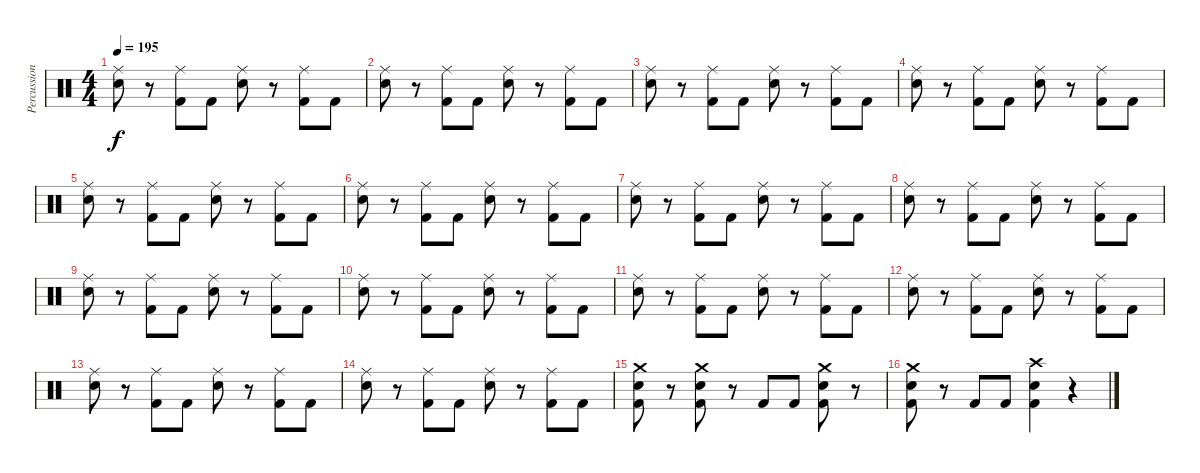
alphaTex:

\track ("Percussion" "Percussion") {instrument percussion}
\staff {score}
\articulation defaults
\ts (4 4)
\tempo 195
\clef neutral
\ks c
("Ride (middle)" "Electric Snare (hit)").8{dy f} r.8 ("Ride (middle)" "Kick (hit) 2").8 "Kick (hit) 2".8 ("Ride (middle)" "Electric Snare (hit)").8 r.8 ("Ride (middle)" "Kick (hit) 2").8 "Kick (hit) 2".8 |
("Ride (middle)" "Electric Snare (hit)").8 r.8 ("Ride (middle)" "Kick (hit) 2").8 "Kick (hit) 2".8 ("Ride (middle)" "Electric Snare (hit)").8 r.8 ("Ride (middle)" "Kick (hit) 2").8 "Kick (hit) 2".8 |
("Ride (middle)" "Electric Snare (hit)").8 r.8 ("Ride (middle)" "Kick (hit) 2").8 "Kick (hit) 2".8 ("Ride (middle)" "Electric Snare (hit)").8 r.8 ("Ride (middle)" "Kick (hit) 2").8 "Kick (hit) 2".8 |
("Ride (middle)" "Electric Snare (hit)").8 r.8 ("Ride (middle)" "Kick (hit) 2").8 "Kick (hit) 2".8 ("Ride (middle)" "Electric Snare (hit)").8 r.8 ("Ride (middle)" "Kick (hit) 2").8 "Kick (hit) 2".8 |
("Ride (middle)" "Electric Snare (hit)").8 r.8 ("Ride (middle)" "Kick (hit) 2").8 "Kick (hit) 2".8 ("Ride (middle)" "Electric Snare (hit)").8 r.8 ("Ride (middle)" "Kick (hit) 2").8 "Kick (hit) 2".8 |
("Ride (middle)" "Electric Snare (hit)").8 r.8 ("Ride (middle)" "Kick (hit) 2").8 "Kick (hit) 2".8 ("Ride (middle)" "Electric Snare (hit)").8 r.8 ("Ride (middle)" "Kick (hit) 2").8 "Kick (hit) 2".8 |
("Ride (middle)" "Electric Snare (hit)").8 r.8 ("Ride (middle)" "Kick (hit) 2").8 "Kick (hit) 2".8 ("Ride (middle)" "Electric Snare (hit)").8 r.8 ("Ride (middle)" "Kick (hit) 2").8 "Kick (hit) 2".8 |
("Ride (middle)" "Electric Snare (hit)").8 r.8 ("Ride (middle)" "Kick (hit) 2").8 "Kick (hit) 2".8 ("Ride (middle)" "Electric Snare (hit)").8 r.8 ("Ride (middle)" "Kick (hit) 2").8 "Kick (hit) 2".8 |
("Ride (middle)" "Electric Snare (hit)").8 r.8 ("Ride (middle)" "Kick (hit) 2").8 "Kick (hit) 2".8 ("Ride (middle)" "Electric Snare (hit)").8 r.8 ("Ride (middle)" "Kick (hit) 2").8 "Kick (hit) 2".8 |
("Ride (middle)" "Electric Snare (hit)").8 r.8 ("Ride (middle)" "Kick (hit) 2").8 "Kick (hit) 2".8 ("Ride (middle)" "Electric Snare (hit)").8 r.8 ("Ride (middle)" "Kick (hit) 2").8 "Kick (hit) 2".8 |
("Ride (middle)" "Electric Snare (hit)").8 r.8 ("Ride (middle)" "Kick (hit) 2").8 "Kick (hit) 2".8 ("Ride (middle)" "Electric Snare (hit)").8 r.8 ("Ride (middle)" "Kick (hit) 2").8 "Kick (hit) 2".8 |
("Ride (middle)" "Electric Snare (hit)").8 r.8 ("Ride (middle)" "Kick (hit) 2").8 "Kick (hit) 2".8 ("Ride (middle)" "Electric Snare (hit)").8 r.8 ("Ride (middle)" "Kick (hit) 2").8 "Kick (hit) 2".8 |
("Ride (middle)" "Electric Snare (hit)").8 r.8 ("Ride (middle)" "Kick (hit) 2").8 "Kick (hit) 2".8 ("Ride (middle)" "Electric Snare (hit)").8 r.8 ("Ride (middle)" "Kick (hit) 2").8 "Kick (hit) 2".8 |
("Ride (middle)" "Electric Snare (hit)").8 r.8 ("Ride (middle)" "Kick (hit) 2").8 "Kick (hit) 2".8 ("Ride (middle)" "Electric Snare (hit)").8 r.8 ("Ride (middle)" "Kick (hit) 2").8 "Kick (hit) 2".8 |
("Crash medium (hit)" "Electric Snare (hit)" "Kick (hit) 2").8 r.8 ("Crash medium (hit)" "Electric Snare (hit)" "Kick (hit) 2").8 r.8 "Kick (hit) 2".8 "Kick (hit) 2".8 ("Crash medium (hit)" "Electric Snare (hit)" "Kick (hit) 2").8 r.8 |
("Crash medium (hit)" "Electric Snare (hit)" "Kick (hit) 2").8 r.8 "Kick (hit) 2".8 "Kick (hit) 2".8 ("Crash high (hit)" "Electric Snare (hit)" "Kick (hit) 2").4 r.4
